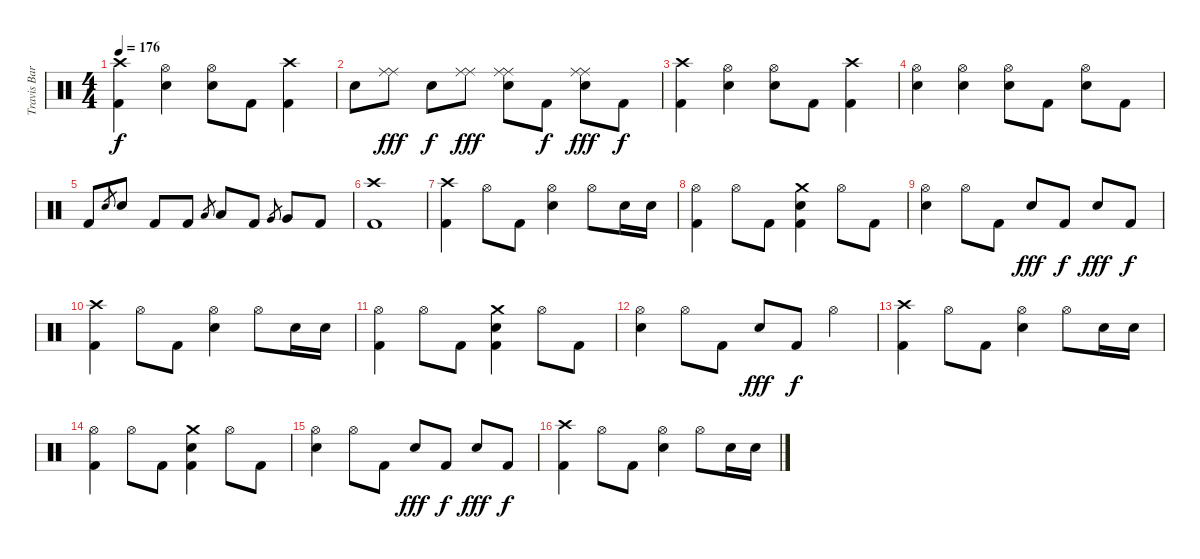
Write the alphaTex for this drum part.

\track ("Travis Barker - Drums" "Travis Bar") {instrument percussion}
\staff {score}
\articulation defaults
\ts (4 4)
\tempo 176
\clef neutral
\ks c
("Crash high (hit)" "Kick (hit) 2").4{dy f} ("Hi-Hat (open)" "Electric Snare (hit)").4 ("Hi-Hat (open)" "Electric Snare (hit)").8 "Kick (hit) 2".8 ("Crash high (hit)" "Kick (hit) 2").4 |
"Electric Snare (hit)".8 ("Ride (middle)" "Ride (middle)").8{dy fff} "Electric Snare (hit)".8{dy f} ("Ride (middle)" "Ride (middle)").8{dy fff} ("Ride (middle)" "Ride (middle)" "Electric Snare (hit)").8 "Kick (hit) 2".8{dy f} ("Ride (middle)" "Ride (middle)" "Electric Snare (hit)").8{dy fff} "Kick (hit) 2".8{dy f} |
("Crash high (hit)" "Kick (hit) 2").4 ("Hi-Hat (open)" "Electric Snare (hit)").4 ("Hi-Hat (open)" "Electric Snare (hit)").8 "Kick (hit) 2".8 ("Crash high (hit)" "Kick (hit) 2").4 |
("Hi-Hat (open)" "Electric Snare (hit)").4 ("Hi-Hat (open)" "Electric Snare (hit)").4 ("Hi-Hat (open)" "Electric Snare (hit)").8 "Kick (hit) 2".8 ("Hi-Hat (open)" "Electric Snare (hit)").8 "Kick (hit) 2".8 |
"Kick (hit) 2".8 "Electric Snare (hit)".8{gr} "Electric Snare (hit)".8 "Kick (hit) 2".8 "Kick (hit) 2".8 "Low Tom (hit)".8{gr} "Low Tom (hit)".8 "Kick (hit) 2".8 "Very Low Tom (hit)".8{gr} "Very Low Tom (hit)".8 "Kick (hit) 2".8 |
("Crash high (hit)" "Kick (hit) 2").1 |
("Crash high (hit)" "Kick (hit) 2").4 "Hi-Hat (open)".8 "Kick (hit) 2".8 ("Hi-Hat (open)" "Electric Snare (hit)").4 "Hi-Hat (open)".8 "Electric Snare (hit)".16 "Electric Snare (hit)".16 |
("Hi-Hat (open)" "Kick (hit) 2").4 "Hi-Hat (open)".8 "Kick (hit) 2".8 ("Crash medium (hit)" "Electric Snare (hit)" "Kick (hit) 2").4 "Hi-Hat (open)".8 "Kick (hit) 2".8 |
("Hi-Hat (open)" "Electric Snare (hit)").4 "Hi-Hat (open)".8 "Kick (hit) 2".8 "Electric Snare (hit)".8{dy fff} "Kick (hit) 2".8{dy f} "Electric Snare (hit)".8{dy fff} "Kick (hit) 2".8{dy f} |
("Crash high (hit)" "Kick (hit) 2").4 "Hi-Hat (open)".8 "Kick (hit) 2".8 ("Hi-Hat (open)" "Electric Snare (hit)").4 "Hi-Hat (open)".8 "Electric Snare (hit)".16 "Electric Snare (hit)".16 |
("Hi-Hat (open)" "Kick (hit) 2").4 "Hi-Hat (open)".8 "Kick (hit) 2".8 ("Crash medium (hit)" "Electric Snare (hit)" "Kick (hit) 2").4 "Hi-Hat (open)".8 "Kick (hit) 2".8 |
("Hi-Hat (open)" "Electric Snare (hit)").4 "Hi-Hat (open)".8 "Kick (hit) 2".8 "Electric Snare (hit)".8{dy fff} "Kick (hit) 2".8{dy f} "Hi-Hat (open)".4 |
("Crash high (hit)" "Kick (hit) 2").4 "Hi-Hat (open)".8 "Kick (hit) 2".8 ("Hi-Hat (open)" "Electric Snare (hit)").4 "Hi-Hat (open)".8 "Electric Snare (hit)".16 "Electric Snare (hit)".16 |
("Hi-Hat (open)" "Kick (hit) 2").4 "Hi-Hat (open)".8 "Kick (hit) 2".8 ("Crash medium (hit)" "Electric Snare (hit)" "Kick (hit) 2").4 "Hi-Hat (open)".8 "Kick (hit) 2".8 |
("Hi-Hat (open)" "Electric Snare (hit)").4 "Hi-Hat (open)".8 "Kick (hit) 2".8 "Electric Snare (hit)".8{dy fff} "Kick (hit) 2".8{dy f} "Electric Snare (hit)".8{dy fff} "Kick (hit) 2".8{dy f} |
("Crash high (hit)" "Kick (hit) 2").4 "Hi-Hat (open)".8 "Kick (hit) 2".8 ("Hi-Hat (open)" "Electric Snare (hit)").4 "Hi-Hat (open)".8 "Electric Snare (hit)".16 "Electric Snare (hit)".16
